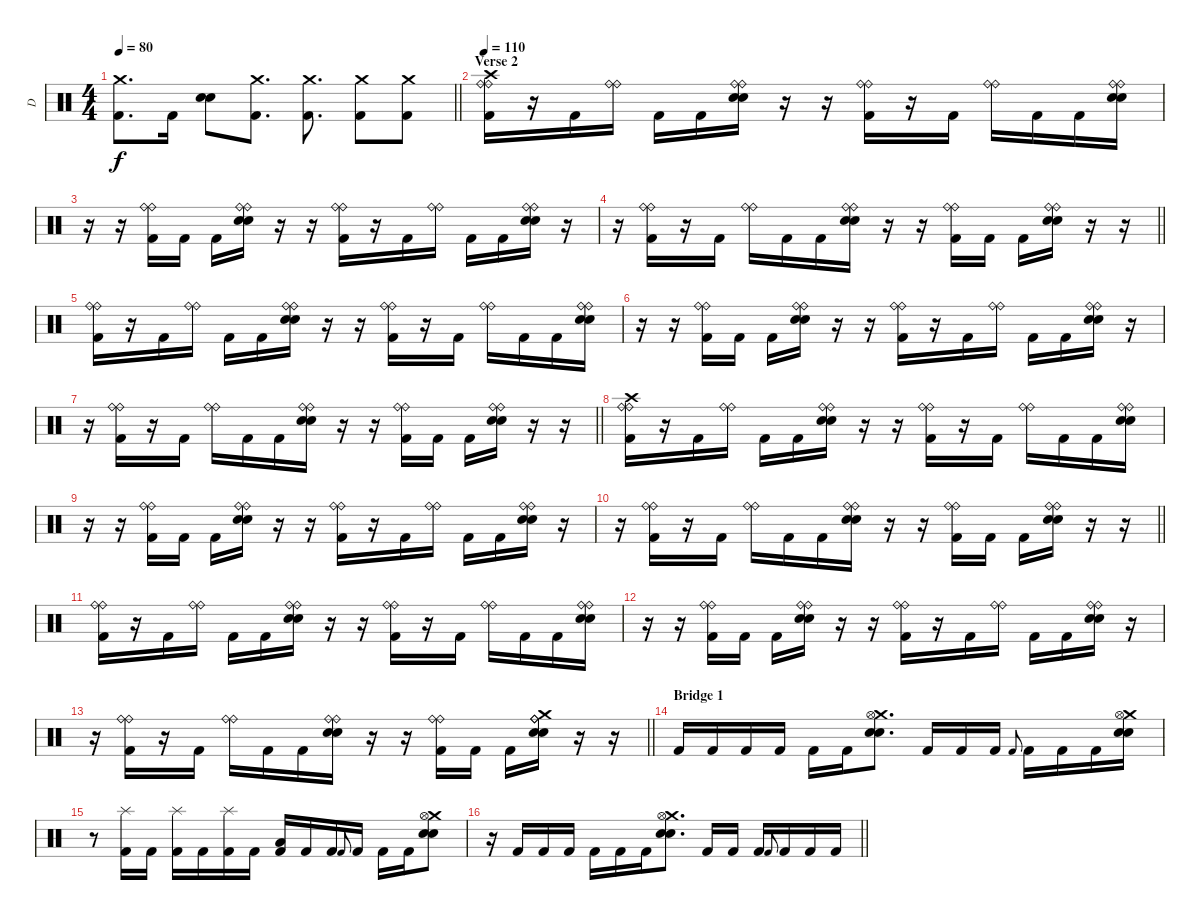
\track ("D" "D") {instrument percussion}
\staff {score}
\articulation defaults
\ts (4 4)
\tempo 80
\clef neutral
\barLineRight lightlight
\ks c
("Crash medium (hit)" "Kick (hit) 2").8{d dy f} "Kick (hit) 2".16 ("Electric Snare (hit)" "Electric Snare (hit)").8 ("Crash medium (hit)" "Kick (hit) 2").8{d} ("Crash medium (hit)" "Kick (hit) 2").8{d} ("Crash medium (hit)" "Kick (hit) 2").8 ("Crash medium (hit)" "Kick (hit) 2").8 |
\section ("" "Verse 2")
\tempo 110
("Crash high (hit)" "Ride (bell)" "Ride (bell)" "Kick (hit) 2").16 r.16 "Kick (hit) 2".16 ("Ride (bell)" "Ride (bell)").16 "Kick (hit) 2".16 "Kick (hit) 2".16 ("Electric Snare (hit)" "Electric Snare (hit)" "Ride (bell)" "Ride (bell)").16 r.16 r.16 ("Ride (bell)" "Ride (bell)" "Kick (hit) 2").16 r.16 "Kick (hit) 2".16 ("Ride (bell)" "Ride (bell)").16 "Kick (hit) 2".16 "Kick (hit) 2".16 ("Electric Snare (hit)" "Electric Snare (hit)" "Ride (bell)" "Ride (bell)").16 |
r.16 r.16 ("Ride (bell)" "Ride (bell)" "Kick (hit) 2").16 "Kick (hit) 2".16 "Kick (hit) 2".16 ("Electric Snare (hit)" "Electric Snare (hit)" "Ride (bell)" "Ride (bell)").16 r.16 r.16 ("Ride (bell)" "Ride (bell)" "Kick (hit) 2").16 r.16 "Kick (hit) 2".16 ("Ride (bell)" "Ride (bell)").16 "Kick (hit) 2".16 "Kick (hit) 2".16 ("Electric Snare (hit)" "Electric Snare (hit)" "Ride (bell)" "Ride (bell)").16 r.16 |
\barLineRight lightlight
r.16 ("Ride (bell)" "Ride (bell)" "Kick (hit) 2").16 r.16 "Kick (hit) 2".16 ("Ride (bell)" "Ride (bell)").16 "Kick (hit) 2".16 "Kick (hit) 2".16 ("Electric Snare (hit)" "Electric Snare (hit)" "Ride (bell)" "Ride (bell)").16 r.16 r.16 ("Ride (bell)" "Ride (bell)" "Kick (hit) 2").16 "Kick (hit) 2".16 "Kick (hit) 2".16 ("Electric Snare (hit)" "Electric Snare (hit)" "Ride (bell)" "Ride (bell)").16 r.16 r.16 |
("Ride (bell)" "Ride (bell)" "Kick (hit) 2").16 r.16 "Kick (hit) 2".16 ("Ride (bell)" "Ride (bell)").16 "Kick (hit) 2".16 "Kick (hit) 2".16 ("Electric Snare (hit)" "Electric Snare (hit)" "Ride (bell)" "Ride (bell)").16 r.16 r.16 ("Ride (bell)" "Ride (bell)" "Kick (hit) 2").16 r.16 "Kick (hit) 2".16 ("Ride (bell)" "Ride (bell)").16 "Kick (hit) 2".16 "Kick (hit) 2".16 ("Electric Snare (hit)" "Electric Snare (hit)" "Ride (bell)" "Ride (bell)").16 |
r.16 r.16 ("Ride (bell)" "Ride (bell)" "Kick (hit) 2").16 "Kick (hit) 2".16 "Kick (hit) 2".16 ("Electric Snare (hit)" "Electric Snare (hit)" "Ride (bell)" "Ride (bell)").16 r.16 r.16 ("Ride (bell)" "Ride (bell)" "Kick (hit) 2").16 r.16 "Kick (hit) 2".16 ("Ride (bell)" "Ride (bell)").16 "Kick (hit) 2".16 "Kick (hit) 2".16 ("Electric Snare (hit)" "Electric Snare (hit)" "Ride (bell)" "Ride (bell)").16 r.16 |
\barLineRight lightlight
r.16 ("Ride (bell)" "Ride (bell)" "Kick (hit) 2").16 r.16 "Kick (hit) 2".16 ("Ride (bell)" "Ride (bell)").16 "Kick (hit) 2".16 "Kick (hit) 2".16 ("Electric Snare (hit)" "Electric Snare (hit)" "Ride (bell)" "Ride (bell)").16 r.16 r.16 ("Ride (bell)" "Ride (bell)" "Kick (hit) 2").16 "Kick (hit) 2".16 "Kick (hit) 2".16 ("Electric Snare (hit)" "Electric Snare (hit)" "Ride (bell)" "Ride (bell)").16 r.16 r.16 |
("Crash high (hit)" "Ride (bell)" "Ride (bell)" "Kick (hit) 2").16 r.16 "Kick (hit) 2".16 ("Ride (bell)" "Ride (bell)").16 "Kick (hit) 2".16 "Kick (hit) 2".16 ("Electric Snare (hit)" "Electric Snare (hit)" "Ride (bell)" "Ride (bell)").16 r.16 r.16 ("Ride (bell)" "Ride (bell)" "Kick (hit) 2").16 r.16 "Kick (hit) 2".16 ("Ride (bell)" "Ride (bell)").16 "Kick (hit) 2".16 "Kick (hit) 2".16 ("Electric Snare (hit)" "Electric Snare (hit)" "Ride (bell)" "Ride (bell)").16 |
r.16 r.16 ("Ride (bell)" "Ride (bell)" "Kick (hit) 2").16 "Kick (hit) 2".16 "Kick (hit) 2".16 ("Electric Snare (hit)" "Electric Snare (hit)" "Ride (bell)" "Ride (bell)").16 r.16 r.16 ("Ride (bell)" "Ride (bell)" "Kick (hit) 2").16 r.16 "Kick (hit) 2".16 ("Ride (bell)" "Ride (bell)").16 "Kick (hit) 2".16 "Kick (hit) 2".16 ("Electric Snare (hit)" "Electric Snare (hit)" "Ride (bell)" "Ride (bell)").16 r.16 |
\barLineRight lightlight
r.16 ("Ride (bell)" "Ride (bell)" "Kick (hit) 2").16 r.16 "Kick (hit) 2".16 ("Ride (bell)" "Ride (bell)").16 "Kick (hit) 2".16 "Kick (hit) 2".16 ("Electric Snare (hit)" "Electric Snare (hit)" "Ride (bell)" "Ride (bell)").16 r.16 r.16 ("Ride (bell)" "Ride (bell)" "Kick (hit) 2").16 "Kick (hit) 2".16 "Kick (hit) 2".16 ("Electric Snare (hit)" "Electric Snare (hit)" "Ride (bell)" "Ride (bell)").16 r.16 r.16 |
("Ride (bell)" "Ride (bell)" "Kick (hit) 2").16 r.16 "Kick (hit) 2".16 ("Ride (bell)" "Ride (bell)").16 "Kick (hit) 2".16 "Kick (hit) 2".16 ("Electric Snare (hit)" "Electric Snare (hit)" "Ride (bell)" "Ride (bell)").16 r.16 r.16 ("Ride (bell)" "Ride (bell)" "Kick (hit) 2").16 r.16 "Kick (hit) 2".16 ("Ride (bell)" "Ride (bell)").16 "Kick (hit) 2".16 "Kick (hit) 2".16 ("Electric Snare (hit)" "Electric Snare (hit)" "Ride (bell)" "Ride (bell)").16 |
r.16 r.16 ("Ride (bell)" "Ride (bell)" "Kick (hit) 2").16 "Kick (hit) 2".16 "Kick (hit) 2".16 ("Electric Snare (hit)" "Electric Snare (hit)" "Ride (bell)" "Ride (bell)").16 r.16 r.16 ("Ride (bell)" "Ride (bell)" "Kick (hit) 2").16 r.16 "Kick (hit) 2".16 ("Ride (bell)" "Ride (bell)").16 "Kick (hit) 2".16 "Kick (hit) 2".16 ("Electric Snare (hit)" "Electric Snare (hit)" "Ride (bell)" "Ride (bell)").16 r.16 |
\barLineRight lightlight
r.16 ("Ride (bell)" "Ride (bell)" "Kick (hit) 2").16 r.16 "Kick (hit) 2".16 ("Ride (bell)" "Ride (bell)").16 "Kick (hit) 2".16 "Kick (hit) 2".16 ("Electric Snare (hit)" "Electric Snare (hit)" "Ride (bell)" "Ride (bell)").16 r.16 r.16 ("Ride (bell)" "Ride (bell)" "Kick (hit) 2").16 "Kick (hit) 2".16 "Kick (hit) 2".16 ("Crash medium (hit)" "Electric Snare (hit)" "Electric Snare (hit)" "Ride (bell)" "Ride (bell)").16 r.16 r.16 |
\section ("" "Bridge 1")
"Kick (hit) 2".16 "Kick (hit) 2".16 "Kick (hit) 2".16 "Kick (hit) 2".16 "Kick (hit) 2".16 "Kick (hit) 2".16 ("Crash medium (hit)" "Electric Snare (hit)" "Electric Snare (hit)" "Hi-Hat (open)").8{d} "Kick (hit) 2".16 "Kick (hit) 2".16 "Kick (hit) 2".16 "Kick (hit) 2".8{gr onbeat} "Kick (hit) 2".16 "Kick (hit) 2".16 "Kick (hit) 2".16 ("Crash medium (hit)" "Electric Snare (hit)" "Electric Snare (hit)" "Hi-Hat (open)").16 |
r.8 ("Splash (hit)" "Kick (hit) 2").16 "Kick (hit) 2".16 ("Splash (hit)" "Kick (hit) 2").16 "Kick (hit) 2".16 ("Splash (hit)" "Kick (hit) 2").16 "Kick (hit) 2".16 ("Low Tom (hit)" "Kick (hit) 2").16 "Kick (hit) 2".16 "Kick (hit) 2".16 "Kick (hit) 2".8{gr onbeat} "Kick (hit) 2".16 "Kick (hit) 2".16 "Kick (hit) 2".16 ("Crash medium (hit)" "Electric Snare (hit)" "Electric Snare (hit)" "Hi-Hat (open)").8 |
\barLineRight lightlight
r.16 "Kick (hit) 2".16 "Kick (hit) 2".16 "Kick (hit) 2".16 "Kick (hit) 2".16 "Kick (hit) 2".16 "Kick (hit) 2".16 ("Crash medium (hit)" "Electric Snare (hit)" "Electric Snare (hit)" "Hi-Hat (open)").8{d} "Kick (hit) 2".16 "Kick (hit) 2".16 "Kick (hit) 2".16 "Kick (hit) 2".8{gr onbeat} "Kick (hit) 2".16 "Kick (hit) 2".16 "Kick (hit) 2".16
